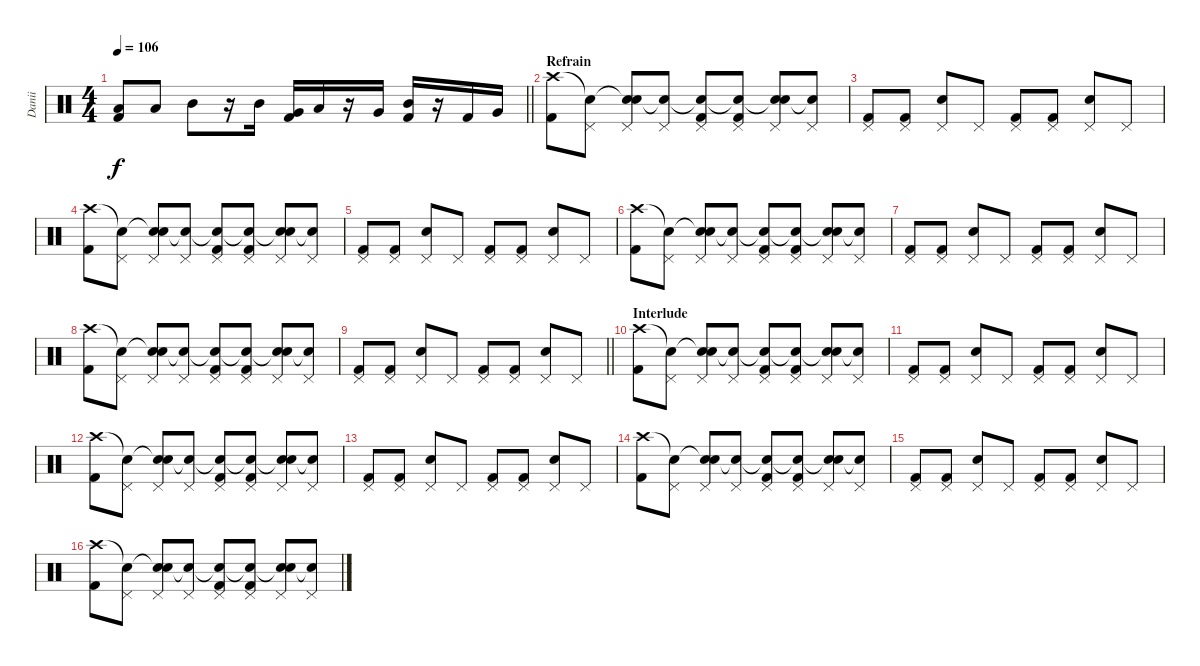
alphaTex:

\track ("Danii" "Danii") {instrument percussion}
\staff {score}
\articulation defaults
\ts (4 4)
\tempo 106
\clef neutral
\barLineRight lightlight
\ks c
("Low Floor Tom (hit)" "Kick (hit) 2").8{dy f} "Low Floor Tom (hit)".8 "Mid Tom (hit)".8 r.16 "Mid Tom (hit)".16 ("Very Low Tom (hit)" "Kick (hit) 2").16 "Low Tom (hit)".16 r.16 "Very Low Tom (hit)".16 ("Mid Tom (hit)" "Kick (hit) 2").16 r.16 "Kick (hit) 2".16 "Very Low Tom (hit)".16 |
\section ("" "Refrain")
("Crash high (hit)" "Kick (hit) 2").8{volume 16} ("Snare (hit)"{t} "Pedal Hi-Hat (hit)").8 ("Snare (hit)"{t} "Pedal Hi-Hat (hit)" "Snare (hit) 2").8 ("Snare (hit)"{t} "Pedal Hi-Hat (hit)").8 ("Snare (hit)"{t} "Pedal Hi-Hat (hit)" "Kick (hit) 2").8 ("Snare (hit)"{t} "Pedal Hi-Hat (hit)" "Kick (hit) 2").8 ("Snare (hit)"{t} "Pedal Hi-Hat (hit)" "Snare (hit) 2").8 ("Snare (hit)"{t} "Pedal Hi-Hat (hit)").8 |
("Pedal Hi-Hat (hit)" "Kick (hit) 2").8 ("Pedal Hi-Hat (hit)" "Kick (hit) 2").8 ("Pedal Hi-Hat (hit)" "Snare (hit) 2").8 "Pedal Hi-Hat (hit)".8 ("Pedal Hi-Hat (hit)" "Kick (hit) 2").8 ("Pedal Hi-Hat (hit)" "Kick (hit) 2").8 ("Pedal Hi-Hat (hit)" "Snare (hit) 2").8 "Pedal Hi-Hat (hit)".8 |
("Crash high (hit)" "Kick (hit) 2").8{volume 16} ("Snare (hit)"{t} "Pedal Hi-Hat (hit)").8 ("Snare (hit)"{t} "Pedal Hi-Hat (hit)" "Snare (hit) 2").8 ("Snare (hit)"{t} "Pedal Hi-Hat (hit)").8 ("Snare (hit)"{t} "Pedal Hi-Hat (hit)" "Kick (hit) 2").8 ("Snare (hit)"{t} "Pedal Hi-Hat (hit)" "Kick (hit) 2").8 ("Snare (hit)"{t} "Pedal Hi-Hat (hit)" "Snare (hit) 2").8 ("Snare (hit)"{t} "Pedal Hi-Hat (hit)").8 |
("Pedal Hi-Hat (hit)" "Kick (hit) 2").8 ("Pedal Hi-Hat (hit)" "Kick (hit) 2").8 ("Pedal Hi-Hat (hit)" "Snare (hit) 2").8 "Pedal Hi-Hat (hit)".8 ("Pedal Hi-Hat (hit)" "Kick (hit) 2").8 ("Pedal Hi-Hat (hit)" "Kick (hit) 2").8 ("Pedal Hi-Hat (hit)" "Snare (hit) 2").8 "Pedal Hi-Hat (hit)".8 |
("Crash high (hit)" "Kick (hit) 2").8{volume 16} ("Snare (hit)"{t} "Pedal Hi-Hat (hit)").8 ("Snare (hit)"{t} "Pedal Hi-Hat (hit)" "Snare (hit) 2").8 ("Snare (hit)"{t} "Pedal Hi-Hat (hit)").8 ("Snare (hit)"{t} "Pedal Hi-Hat (hit)" "Kick (hit) 2").8 ("Snare (hit)"{t} "Pedal Hi-Hat (hit)" "Kick (hit) 2").8 ("Snare (hit)"{t} "Pedal Hi-Hat (hit)" "Snare (hit) 2").8 ("Snare (hit)"{t} "Pedal Hi-Hat (hit)").8 |
("Pedal Hi-Hat (hit)" "Kick (hit) 2").8 ("Pedal Hi-Hat (hit)" "Kick (hit) 2").8 ("Pedal Hi-Hat (hit)" "Snare (hit) 2").8 "Pedal Hi-Hat (hit)".8 ("Pedal Hi-Hat (hit)" "Kick (hit) 2").8 ("Pedal Hi-Hat (hit)" "Kick (hit) 2").8 ("Pedal Hi-Hat (hit)" "Snare (hit) 2").8 "Pedal Hi-Hat (hit)".8 |
("Crash high (hit)" "Kick (hit) 2").8{volume 16} ("Snare (hit)"{t} "Pedal Hi-Hat (hit)").8 ("Snare (hit)"{t} "Pedal Hi-Hat (hit)" "Snare (hit) 2").8 ("Snare (hit)"{t} "Pedal Hi-Hat (hit)").8 ("Snare (hit)"{t} "Pedal Hi-Hat (hit)" "Kick (hit) 2").8 ("Snare (hit)"{t} "Pedal Hi-Hat (hit)" "Kick (hit) 2").8 ("Snare (hit)"{t} "Pedal Hi-Hat (hit)" "Snare (hit) 2").8 ("Snare (hit)"{t} "Pedal Hi-Hat (hit)").8 |
\barLineRight lightlight
("Pedal Hi-Hat (hit)" "Kick (hit) 2").8 ("Pedal Hi-Hat (hit)" "Kick (hit) 2").8 ("Pedal Hi-Hat (hit)" "Snare (hit) 2").8 "Pedal Hi-Hat (hit)".8 ("Pedal Hi-Hat (hit)" "Kick (hit) 2").8 ("Pedal Hi-Hat (hit)" "Kick (hit) 2").8 ("Pedal Hi-Hat (hit)" "Snare (hit) 2").8 "Pedal Hi-Hat (hit)".8 |
\section ("" "Interlude")
("Crash high (hit)" "Kick (hit) 2").8{volume 16} ("Snare (hit)"{t} "Pedal Hi-Hat (hit)").8 ("Snare (hit)"{t} "Pedal Hi-Hat (hit)" "Snare (hit) 2").8 ("Snare (hit)"{t} "Pedal Hi-Hat (hit)").8 ("Snare (hit)"{t} "Pedal Hi-Hat (hit)" "Kick (hit) 2").8 ("Snare (hit)"{t} "Pedal Hi-Hat (hit)" "Kick (hit) 2").8 ("Snare (hit)"{t} "Pedal Hi-Hat (hit)" "Snare (hit) 2").8 ("Snare (hit)"{t} "Pedal Hi-Hat (hit)").8 |
("Pedal Hi-Hat (hit)" "Kick (hit) 2").8 ("Pedal Hi-Hat (hit)" "Kick (hit) 2").8 ("Pedal Hi-Hat (hit)" "Snare (hit) 2").8 "Pedal Hi-Hat (hit)".8 ("Pedal Hi-Hat (hit)" "Kick (hit) 2").8 ("Pedal Hi-Hat (hit)" "Kick (hit) 2").8 ("Pedal Hi-Hat (hit)" "Snare (hit) 2").8 "Pedal Hi-Hat (hit)".8 |
("Crash high (hit)" "Kick (hit) 2").8{volume 16} ("Snare (hit)"{t} "Pedal Hi-Hat (hit)").8 ("Snare (hit)"{t} "Pedal Hi-Hat (hit)" "Snare (hit) 2").8 ("Snare (hit)"{t} "Pedal Hi-Hat (hit)").8 ("Snare (hit)"{t} "Pedal Hi-Hat (hit)" "Kick (hit) 2").8 ("Snare (hit)"{t} "Pedal Hi-Hat (hit)" "Kick (hit) 2").8 ("Snare (hit)"{t} "Pedal Hi-Hat (hit)" "Snare (hit) 2").8 ("Snare (hit)"{t} "Pedal Hi-Hat (hit)").8 |
("Pedal Hi-Hat (hit)" "Kick (hit) 2").8 ("Pedal Hi-Hat (hit)" "Kick (hit) 2").8 ("Pedal Hi-Hat (hit)" "Snare (hit) 2").8 "Pedal Hi-Hat (hit)".8 ("Pedal Hi-Hat (hit)" "Kick (hit) 2").8 ("Pedal Hi-Hat (hit)" "Kick (hit) 2").8 ("Pedal Hi-Hat (hit)" "Snare (hit) 2").8 "Pedal Hi-Hat (hit)".8 |
("Crash high (hit)" "Kick (hit) 2").8{volume 16} ("Snare (hit)"{t} "Pedal Hi-Hat (hit)").8 ("Snare (hit)"{t} "Pedal Hi-Hat (hit)" "Snare (hit) 2").8 ("Snare (hit)"{t} "Pedal Hi-Hat (hit)").8 ("Snare (hit)"{t} "Pedal Hi-Hat (hit)" "Kick (hit) 2").8 ("Snare (hit)"{t} "Pedal Hi-Hat (hit)" "Kick (hit) 2").8 ("Snare (hit)"{t} "Pedal Hi-Hat (hit)" "Snare (hit) 2").8 ("Snare (hit)"{t} "Pedal Hi-Hat (hit)").8 |
("Pedal Hi-Hat (hit)" "Kick (hit) 2").8 ("Pedal Hi-Hat (hit)" "Kick (hit) 2").8 ("Pedal Hi-Hat (hit)" "Snare (hit) 2").8 "Pedal Hi-Hat (hit)".8 ("Pedal Hi-Hat (hit)" "Kick (hit) 2").8 ("Pedal Hi-Hat (hit)" "Kick (hit) 2").8 ("Pedal Hi-Hat (hit)" "Snare (hit) 2").8 "Pedal Hi-Hat (hit)".8 |
("Crash high (hit)" "Kick (hit) 2").8{volume 16} ("Snare (hit)"{t} "Pedal Hi-Hat (hit)").8 ("Snare (hit)"{t} "Pedal Hi-Hat (hit)" "Snare (hit) 2").8 ("Snare (hit)"{t} "Pedal Hi-Hat (hit)").8 ("Snare (hit)"{t} "Pedal Hi-Hat (hit)" "Kick (hit) 2").8 ("Snare (hit)"{t} "Pedal Hi-Hat (hit)" "Kick (hit) 2").8 ("Snare (hit)"{t} "Pedal Hi-Hat (hit)" "Snare (hit) 2").8 ("Snare (hit)"{t} "Pedal Hi-Hat (hit)").8
